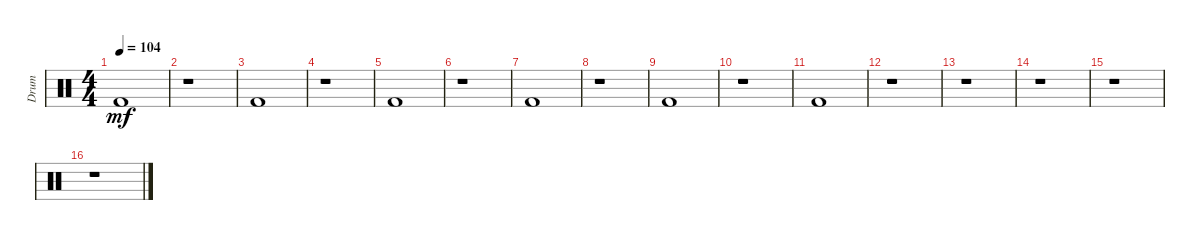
\track ("Drum" "Drum") {instrument percussion}
\staff {score}
\articulation defaults
\ts (4 4)
\tempo 104
\clef neutral
\ks c "Kick (hit) 2".1{dy mf}
|
r.1 |
"Kick (hit) 2".1 |
r.1 |
"Kick (hit) 2".1 |
r.1 |
"Kick (hit) 2".1 |
r.1 |
"Kick (hit) 2".1 |
r.1 |
"Kick (hit) 2".1 |
r.1 |
r.1 |
r.1 |
r.1 |
r.1
